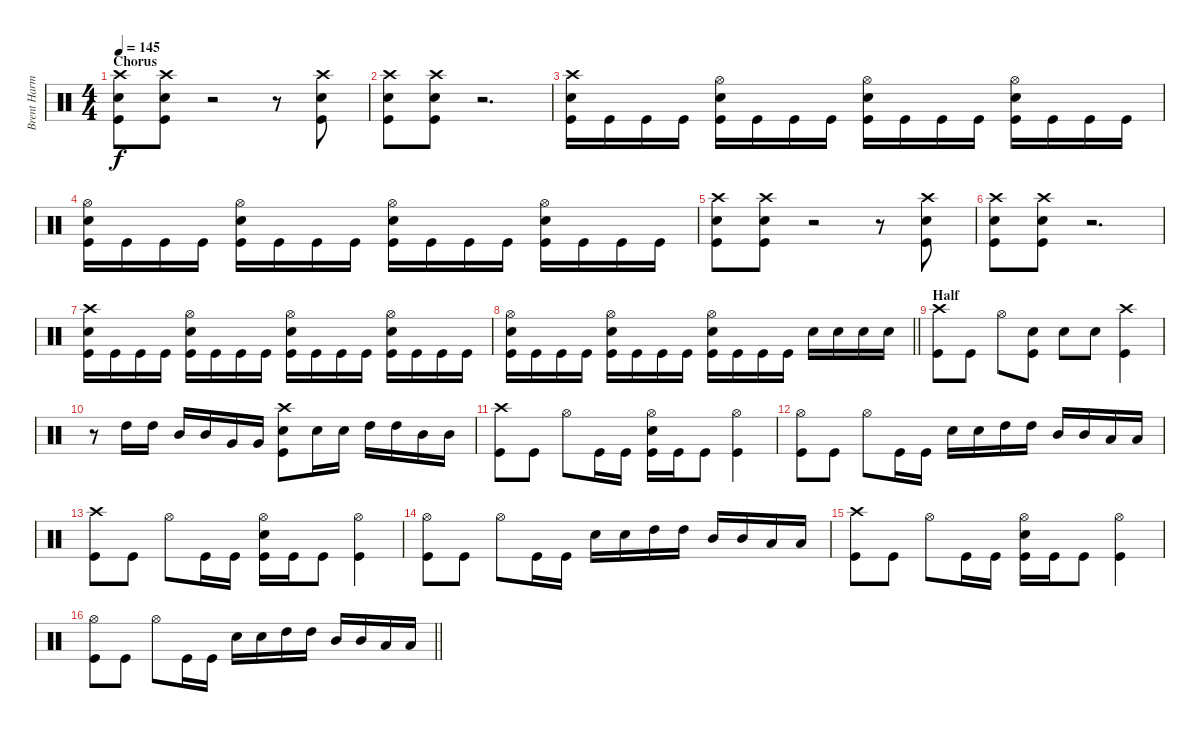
\track ("Brent Harman" "Brent Harm") {instrument percussion}
\staff {score}
\articulation defaults
\ts (4 4)
\section ("" "Chorus")
\tempo 145
\clef neutral
\ks c
("Crash high (hit)" "Snare (hit) 2" "Kick (hit)").8{dy f} ("Crash high (hit)" "Snare (hit) 2" "Kick (hit)").8 r.2 r.8 ("Crash high (hit)" "Snare (hit) 2" "Kick (hit)").8 |
("Crash high (hit)" "Snare (hit) 2" "Kick (hit)").8 ("Crash high (hit)" "Snare (hit) 2" "Kick (hit)").8 r.2{d} |
("Crash high (hit)" "Snare (hit) 2" "Kick (hit)").16 "Kick (hit)".16 "Kick (hit)".16 "Kick (hit)".16 ("Hi-Hat (open)" "Snare (hit) 2" "Kick (hit)").16 "Kick (hit)".16 "Kick (hit)".16 "Kick (hit)".16 ("Hi-Hat (open)" "Snare (hit) 2" "Kick (hit)").16 "Kick (hit)".16 "Kick (hit)".16 "Kick (hit)".16 ("Hi-Hat (open)" "Snare (hit) 2" "Kick (hit)").16 "Kick (hit)".16 "Kick (hit)".16 "Kick (hit)".16 |
("Hi-Hat (open)" "Snare (hit) 2" "Kick (hit)").16 "Kick (hit)".16 "Kick (hit)".16 "Kick (hit)".16 ("Hi-Hat (open)" "Snare (hit) 2" "Kick (hit)").16 "Kick (hit)".16 "Kick (hit)".16 "Kick (hit)".16 ("Hi-Hat (open)" "Snare (hit) 2" "Kick (hit)").16 "Kick (hit)".16 "Kick (hit)".16 "Kick (hit)".16 ("Hi-Hat (open)" "Snare (hit) 2" "Kick (hit)").16 "Kick (hit)".16 "Kick (hit)".16 "Kick (hit)".16 |
("Crash high (hit)" "Snare (hit) 2" "Kick (hit)").8 ("Crash high (hit)" "Snare (hit) 2" "Kick (hit)").8 r.2 r.8 ("Crash high (hit)" "Snare (hit) 2" "Kick (hit)").8 |
("Crash high (hit)" "Snare (hit) 2" "Kick (hit)").8 ("Crash high (hit)" "Snare (hit) 2" "Kick (hit)").8 r.2{d} |
("Crash high (hit)" "Snare (hit) 2" "Kick (hit)").16 "Kick (hit)".16 "Kick (hit)".16 "Kick (hit)".16 ("Hi-Hat (open)" "Snare (hit) 2" "Kick (hit)").16 "Kick (hit)".16 "Kick (hit)".16 "Kick (hit)".16 ("Hi-Hat (open)" "Snare (hit) 2" "Kick (hit)").16 "Kick (hit)".16 "Kick (hit)".16 "Kick (hit)".16 ("Hi-Hat (open)" "Snare (hit) 2" "Kick (hit)").16 "Kick (hit)".16 "Kick (hit)".16 "Kick (hit)".16 |
\barLineRight lightlight
("Hi-Hat (open)" "Snare (hit) 2" "Kick (hit)").16 "Kick (hit)".16 "Kick (hit)".16 "Kick (hit)".16 ("Hi-Hat (open)" "Snare (hit) 2" "Kick (hit)").16 "Kick (hit)".16 "Kick (hit)".16 "Kick (hit)".16 ("Hi-Hat (open)" "Snare (hit) 2" "Kick (hit)").16 "Kick (hit)".16 "Kick (hit)".16 "Kick (hit)".16 "Snare (hit) 2".16 "Snare (hit) 2".16 "Snare (hit) 2".16 "Snare (hit) 2".16 |
\section ("" "Half")
("Crash high (hit)" "Kick (hit)").8 "Kick (hit)".8 "Hi-Hat (open)".8 ("Snare (hit) 2" "Kick (hit)").8 "Snare (hit) 2".8 "Snare (hit) 2".8 ("Crash high (hit)" "Kick (hit)").4 |
r.8 "High Tom (hit)".16 "High Tom (hit)".16 "Mid Tom (hit)".16 "Mid Tom (hit)".16 "Very Low Tom (hit)".16 "Very Low Tom (hit)".16 ("Crash high (hit)" "Snare (hit) 2" "Kick (hit)").8 "Snare (hit) 2".16 "Snare (hit) 2".16 "High Tom (hit)".16 "High Tom (hit)".16 "Mid Tom (hit)".16 "Mid Tom (hit)".16 |
("Crash high (hit)" "Kick (hit)").8 "Kick (hit)".8 "Hi-Hat (open)".8 "Kick (hit)".16 "Kick (hit)".16 ("Hi-Hat (open)" "Snare (hit) 2" "Kick (hit)").16 "Kick (hit)".16 "Kick (hit)".8 ("Hi-Hat (open)" "Kick (hit)").4 |
("Hi-Hat (open)" "Kick (hit)").8 "Kick (hit)".8 "Hi-Hat (open)".8 "Kick (hit)".16 "Kick (hit)".16 "Snare (hit) 2".16 "Snare (hit) 2".16 "High Tom (hit)".16 "High Tom (hit)".16 "Mid Tom (hit)".16 "Mid Tom (hit)".16 "Low Tom (hit)".16 "Low Tom (hit)".16 |
("Crash high (hit)" "Kick (hit)").8 "Kick (hit)".8 "Hi-Hat (open)".8 "Kick (hit)".16 "Kick (hit)".16 ("Hi-Hat (open)" "Snare (hit) 2" "Kick (hit)").16 "Kick (hit)".16 "Kick (hit)".8 ("Hi-Hat (open)" "Kick (hit)").4 |
("Hi-Hat (open)" "Kick (hit)").8 "Kick (hit)".8 "Hi-Hat (open)".8 "Kick (hit)".16 "Kick (hit)".16 "Snare (hit) 2".16 "Snare (hit) 2".16 "High Tom (hit)".16 "High Tom (hit)".16 "Mid Tom (hit)".16 "Mid Tom (hit)".16 "Low Tom (hit)".16 "Low Tom (hit)".16 |
("Crash high (hit)" "Kick (hit)").8 "Kick (hit)".8 "Hi-Hat (open)".8 "Kick (hit)".16 "Kick (hit)".16 ("Hi-Hat (open)" "Snare (hit) 2" "Kick (hit)").16 "Kick (hit)".16 "Kick (hit)".8 ("Hi-Hat (open)" "Kick (hit)").4 |
\barLineRight lightlight
("Hi-Hat (open)" "Kick (hit)").8 "Kick (hit)".8 "Hi-Hat (open)".8 "Kick (hit)".16 "Kick (hit)".16 "Snare (hit) 2".16 "Snare (hit) 2".16 "High Tom (hit)".16 "High Tom (hit)".16 "Mid Tom (hit)".16 "Mid Tom (hit)".16 "Low Tom (hit)".16 "Low Tom (hit)".16
